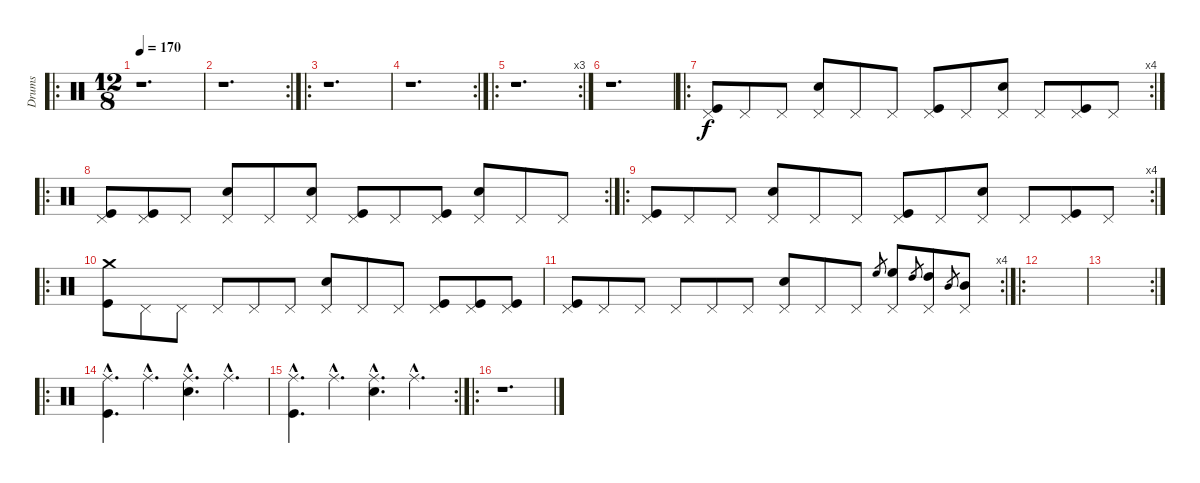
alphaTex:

\track ("Drums" "Drums") {instrument percussion}
\staff {score}
\articulation defaults
\ro
\ts (12 8)
\tempo 170
\clef neutral
\ks c
r.1{d dy f} |
\rc 2
r.1{d} |
\ro
r.1{d} |
\rc 2
r.1{d} |
\ro
\rc 3
r.1{d} |
r.1{d} |
\ro
\rc 4
("Pedal Hi-Hat (hit)" "Kick (hit)").8 "Pedal Hi-Hat (hit)".8 "Pedal Hi-Hat (hit)".8 ("Pedal Hi-Hat (hit)" "Snare (hit) 2").8 "Pedal Hi-Hat (hit)".8 "Pedal Hi-Hat (hit)".8 ("Pedal Hi-Hat (hit)" "Kick (hit)").8 "Pedal Hi-Hat (hit)".8 ("Pedal Hi-Hat (hit)" "Snare (hit) 2").8 "Pedal Hi-Hat (hit)".8 ("Pedal Hi-Hat (hit)" "Kick (hit)").8 "Pedal Hi-Hat (hit)".8 |
\ro
\rc 2
("Pedal Hi-Hat (hit)" "Kick (hit)").8 ("Pedal Hi-Hat (hit)" "Kick (hit)").8 "Pedal Hi-Hat (hit)".8 ("Pedal Hi-Hat (hit)" "Snare (hit) 2").8 "Pedal Hi-Hat (hit)".8 ("Pedal Hi-Hat (hit)" "Snare (hit) 2").8 ("Pedal Hi-Hat (hit)" "Kick (hit)").8 "Pedal Hi-Hat (hit)".8 ("Pedal Hi-Hat (hit)" "Kick (hit)").8 ("Pedal Hi-Hat (hit)" "Snare (hit) 2").8 "Pedal Hi-Hat (hit)".8 "Pedal Hi-Hat (hit)".8 |
\ro
\rc 4
("Pedal Hi-Hat (hit)" "Kick (hit)").8 "Pedal Hi-Hat (hit)".8 "Pedal Hi-Hat (hit)".8 ("Pedal Hi-Hat (hit)" "Snare (hit) 2").8 "Pedal Hi-Hat (hit)".8 "Pedal Hi-Hat (hit)".8 ("Pedal Hi-Hat (hit)" "Kick (hit)").8 "Pedal Hi-Hat (hit)".8 ("Pedal Hi-Hat (hit)" "Snare (hit) 2").8 "Pedal Hi-Hat (hit)".8 ("Pedal Hi-Hat (hit)" "Kick (hit)").8 "Pedal Hi-Hat (hit)".8 |
\ro
("Crash medium (hit)" "Kick (hit)").8 "Pedal Hi-Hat (hit)".8 "Pedal Hi-Hat (hit)".8 "Pedal Hi-Hat (hit)".8 "Pedal Hi-Hat (hit)".8 "Pedal Hi-Hat (hit)".8 ("Pedal Hi-Hat (hit)" "Snare (hit) 2").8 "Pedal Hi-Hat (hit)".8 "Pedal Hi-Hat (hit)".8 ("Pedal Hi-Hat (hit)" "Kick (hit)").8 ("Pedal Hi-Hat (hit)" "Kick (hit)").8 ("Pedal Hi-Hat (hit)" "Kick (hit)").8 |
\rc 4
("Pedal Hi-Hat (hit)" "Kick (hit)").8 "Pedal Hi-Hat (hit)".8 "Pedal Hi-Hat (hit)".8 "Pedal Hi-Hat (hit)".8 "Pedal Hi-Hat (hit)".8 "Pedal Hi-Hat (hit)".8 ("Pedal Hi-Hat (hit)" "Snare (hit) 2").8 "Pedal Hi-Hat (hit)".8 "Pedal Hi-Hat (hit)".8 "High Floor Tom (hit)".8{gr} ("Pedal Hi-Hat (hit)" "High Floor Tom (hit)").8 "High Tom (hit)".8{gr} ("Pedal Hi-Hat (hit)" "High Tom (hit)").8 "Mid Tom (hit)".8{gr} ("Pedal Hi-Hat (hit)" "Mid Tom (hit)").8 |
\ro
|
\rc 2
|
\ro
("Ride (middle)"{hac} "Kick (hit)"{hac}).4{d} "Ride (middle)"{hac}.4{d} ("Ride (middle)"{hac} "Snare (hit) 2"{hac}).4{d} "Ride (middle)"{hac}.4{d} |
\rc 2
("Ride (middle)"{hac} "Kick (hit)"{hac}).4{d} "Ride (middle)"{hac}.4{d} ("Ride (middle)"{hac} "Snare (hit) 2"{hac}).4{d} "Ride (middle)"{hac}.4{d} |
\ro
r.1{d}
